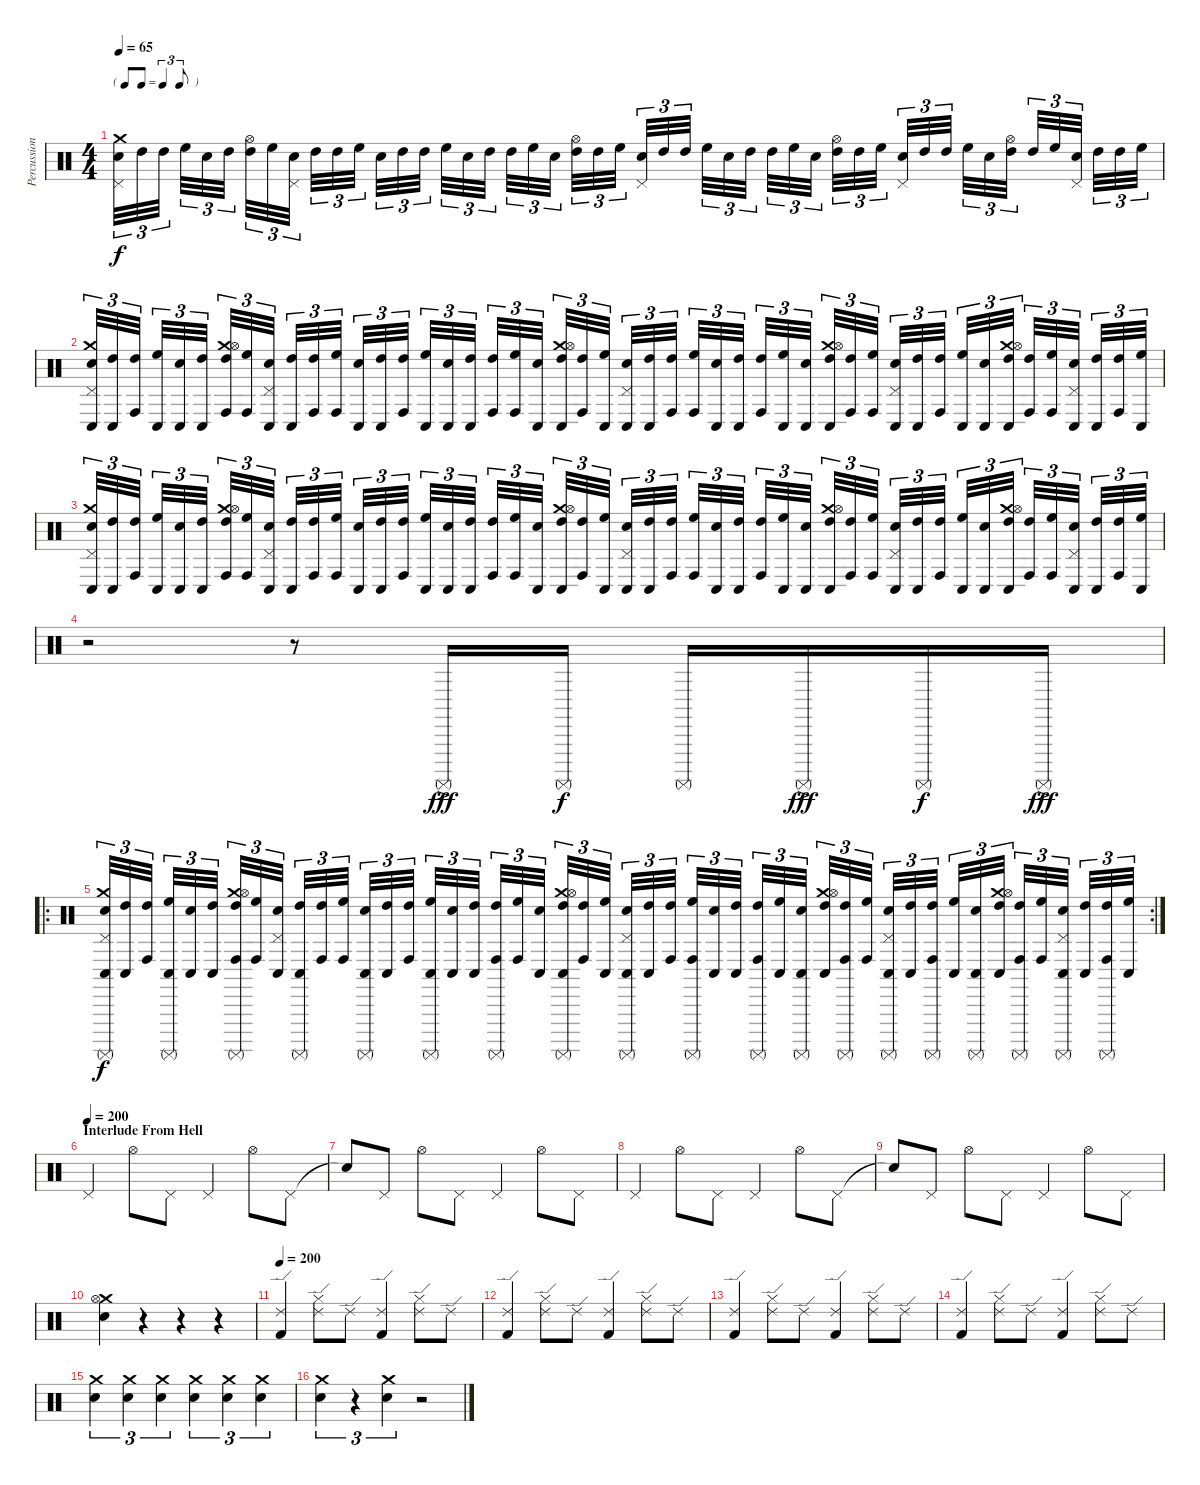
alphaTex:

\track ("Percussion" "Percussion") {instrument percussion}
\staff {score}
\articulation defaults
\ts (4 4)
\tf triplet8th
\tempo 65
\clef neutral
\ks c
("Crash medium (hit)" "Pedal Hi-Hat (hit)" "Electric Snare (hit)").32{tu (3 2) dy f} "High Tom (hit)".32{tu (3 2)} "High Tom (hit)".32{tu (3 2)} "High Floor Tom (hit)".32{tu (3 2)} "Electric Snare (hit)".32{tu (3 2)} "High Tom (hit)".32{tu (3 2)} ("Hi-Hat (open)" "High Tom (hit)").32{tu (3 2)} "High Floor Tom (hit)".32{tu (3 2)} ("Pedal Hi-Hat (hit)" "Electric Snare (hit)").32{tu (3 2)} "High Tom (hit)".32{tu (3 2)} "High Tom (hit)".32{tu (3 2)} "High Floor Tom (hit)".32{tu (3 2)} "Electric Snare (hit)".32{tu (3 2)} "High Tom (hit)".32{tu (3 2)} "High Tom (hit)".32{tu (3 2)} "High Floor Tom (hit)".32{tu (3 2)} "Electric Snare (hit)".32{tu (3 2)} "High Tom (hit)".32{tu (3 2)} "High Tom (hit)".32{tu (3 2)} "High Floor Tom (hit)".32{tu (3 2)} "Electric Snare (hit)".32{tu (3 2)} ("Hi-Hat (open)" "High Tom (hit)").32{tu (3 2)} "High Tom (hit)".32{tu (3 2)} "High Floor Tom (hit)".32{tu (3 2)} ("Pedal Hi-Hat (hit)" "Electric Snare (hit)").32{tu (3 2)} "High Tom (hit)".32{tu (3 2)} "High Tom (hit)".32{tu (3 2)} "High Floor Tom (hit)".32{tu (3 2)} "Electric Snare (hit)".32{tu (3 2)} "High Tom (hit)".32{tu (3 2)} "High Tom (hit)".32{tu (3 2)} "High Floor Tom (hit)".32{tu (3 2)} "Electric Snare (hit)".32{tu (3 2)} ("Hi-Hat (open)" "High Tom (hit)").32{tu (3 2)} "High Tom (hit)".32{tu (3 2)} "High Floor Tom (hit)".32{tu (3 2)} ("Pedal Hi-Hat (hit)" "Electric Snare (hit)").32{tu (3 2)} "High Tom (hit)".32{tu (3 2)} "High Tom (hit)".32{tu (3 2)} "High Floor Tom (hit)".32{tu (3 2)} "Electric Snare (hit)".32{tu (3 2)} ("Hi-Hat (open)" "High Tom (hit)").32{tu (3 2)} "High Tom (hit)".32{tu (3 2)} "High Floor Tom (hit)".32{tu (3 2)} ("Pedal Hi-Hat (hit)" "Electric Snare (hit)").32{tu (3 2)} "High Tom (hit)".32{tu (3 2)} "High Tom (hit)".32{tu (3 2)} "High Floor Tom (hit)".32{tu (3 2)} |
("Crash medium (hit)" "Pedal Hi-Hat (hit)" "Electric Snare (hit)" "Conga low (hit)").32{tu (3 2)} ("High Tom (hit)" "Conga low (hit)").32{tu (3 2)} ("High Tom (hit)" "Conga high (hit)").32{tu (3 2)} ("High Floor Tom (hit)" "Conga low (hit)").32{tu (3 2)} ("Electric Snare (hit)" "Conga low (hit)").32{tu (3 2)} ("High Tom (hit)" "Conga low (hit)").32{tu (3 2)} ("Crash medium (hit)" "Hi-Hat (open)" "High Tom (hit)" "Conga high (hit)").32{tu (3 2)} ("High Floor Tom (hit)" "Conga high (hit)").32{tu (3 2)} ("Pedal Hi-Hat (hit)" "Electric Snare (hit)" "Conga low (hit)").32{tu (3 2)} ("High Tom (hit)" "Conga low (hit)").32{tu (3 2)} ("High Tom (hit)" "Conga high (hit)").32{tu (3 2)} ("High Floor Tom (hit)" "Conga high (hit)").32{tu (3 2)} ("Electric Snare (hit)" "Conga low (hit)").32{tu (3 2)} ("High Tom (hit)" "Conga low (hit)").32{tu (3 2)} ("High Tom (hit)" "Conga high (hit)").32{tu (3 2)} ("High Floor Tom (hit)" "Conga low (hit)").32{tu (3 2)} ("Electric Snare (hit)" "Conga low (hit)").32{tu (3 2)} ("High Tom (hit)" "Conga low (hit)").32{tu (3 2)} ("High Tom (hit)" "Conga high (hit)").32{tu (3 2)} ("High Floor Tom (hit)" "Conga high (hit)").32{tu (3 2)} ("Electric Snare (hit)" "Conga low (hit)").32{tu (3 2)} ("Crash medium (hit)" "Hi-Hat (open)" "High Tom (hit)" "Conga low (hit)").32{tu (3 2)} ("High Tom (hit)" "Conga high (hit)").32{tu (3 2)} ("High Floor Tom (hit)" "Conga low (hit)").32{tu (3 2)} ("Pedal Hi-Hat (hit)" "Electric Snare (hit)" "Conga low (hit)").32{tu (3 2)} ("High Tom (hit)" "Conga low (hit)").32{tu (3 2)} ("High Tom (hit)" "Conga high (hit)").32{tu (3 2)} ("High Floor Tom (hit)" "Conga high (hit)").32{tu (3 2)} ("Electric Snare (hit)" "Conga low (hit)").32{tu (3 2)} ("High Tom (hit)" "Conga low (hit)").32{tu (3 2)} ("High Tom (hit)" "Conga high (hit)").32{tu (3 2)} ("High Floor Tom (hit)" "Conga low (hit)").32{tu (3 2)} ("Electric Snare (hit)" "Conga low (hit)").32{tu (3 2)} ("Crash medium (hit)" "Hi-Hat (open)" "High Tom (hit)" "Conga low (hit)").32{tu (3 2)} ("High Tom (hit)" "Conga high (hit)").32{tu (3 2)} ("High Floor Tom (hit)" "Conga high (hit)").32{tu (3 2)} ("Pedal Hi-Hat (hit)" "Electric Snare (hit)" "Conga low (hit)").32{tu (3 2)} ("High Tom (hit)" "Conga low (hit)").32{tu (3 2)} ("High Tom (hit)" "Conga high (hit)").32{tu (3 2)} ("High Floor Tom (hit)" "Conga low (hit)").32{tu (3 2)} ("Electric Snare (hit)" "Conga low (hit)").32{tu (3 2)} ("Crash medium (hit)" "Hi-Hat (open)" "High Tom (hit)" "Conga low (hit)").32{tu (3 2)} ("High Tom (hit)" "Conga high (hit)").32{tu (3 2)} ("High Floor Tom (hit)" "Conga high (hit)").32{tu (3 2)} ("Pedal Hi-Hat (hit)" "Electric Snare (hit)" "Conga low (hit)").32{tu (3 2)} ("High Tom (hit)" "Conga low (hit)").32{tu (3 2)} ("High Tom (hit)" "Conga high (hit)").32{tu (3 2)} ("High Floor Tom (hit)" "Conga low (hit)").32{tu (3 2)} |
("Crash medium (hit)" "Pedal Hi-Hat (hit)" "Electric Snare (hit)" "Conga low (hit)").32{tu (3 2)} ("High Tom (hit)" "Conga low (hit)").32{tu (3 2)} ("High Tom (hit)" "Conga high (hit)").32{tu (3 2)} ("High Floor Tom (hit)" "Conga low (hit)").32{tu (3 2)} ("Electric Snare (hit)" "Conga low (hit)").32{tu (3 2)} ("High Tom (hit)" "Conga low (hit)").32{tu (3 2)} ("Crash medium (hit)" "Hi-Hat (open)" "High Tom (hit)" "Conga high (hit)").32{tu (3 2)} ("High Floor Tom (hit)" "Conga high (hit)").32{tu (3 2)} ("Pedal Hi-Hat (hit)" "Electric Snare (hit)" "Conga low (hit)").32{tu (3 2)} ("High Tom (hit)" "Conga low (hit)").32{tu (3 2)} ("High Tom (hit)" "Conga high (hit)").32{tu (3 2)} ("High Floor Tom (hit)" "Conga high (hit)").32{tu (3 2)} ("Electric Snare (hit)" "Conga low (hit)").32{tu (3 2)} ("High Tom (hit)" "Conga low (hit)").32{tu (3 2)} ("High Tom (hit)" "Conga high (hit)").32{tu (3 2)} ("High Floor Tom (hit)" "Conga low (hit)").32{tu (3 2)} ("Electric Snare (hit)" "Conga low (hit)").32{tu (3 2)} ("High Tom (hit)" "Conga low (hit)").32{tu (3 2)} ("High Tom (hit)" "Conga high (hit)").32{tu (3 2)} ("High Floor Tom (hit)" "Conga high (hit)").32{tu (3 2)} ("Electric Snare (hit)" "Conga low (hit)").32{tu (3 2)} ("Crash medium (hit)" "Hi-Hat (open)" "High Tom (hit)" "Conga low (hit)").32{tu (3 2)} ("High Tom (hit)" "Conga high (hit)").32{tu (3 2)} ("High Floor Tom (hit)" "Conga low (hit)").32{tu (3 2)} ("Pedal Hi-Hat (hit)" "Electric Snare (hit)" "Conga low (hit)").32{tu (3 2)} ("High Tom (hit)" "Conga low (hit)").32{tu (3 2)} ("High Tom (hit)" "Conga high (hit)").32{tu (3 2)} ("High Floor Tom (hit)" "Conga high (hit)").32{tu (3 2)} ("Electric Snare (hit)" "Conga low (hit)").32{tu (3 2)} ("High Tom (hit)" "Conga low (hit)").32{tu (3 2)} ("High Tom (hit)" "Conga high (hit)").32{tu (3 2)} ("High Floor Tom (hit)" "Conga low (hit)").32{tu (3 2)} ("Electric Snare (hit)" "Conga low (hit)").32{tu (3 2)} ("Crash medium (hit)" "Hi-Hat (open)" "High Tom (hit)" "Conga low (hit)").32{tu (3 2)} ("High Tom (hit)" "Conga high (hit)").32{tu (3 2)} ("High Floor Tom (hit)" "Conga high (hit)").32{tu (3 2)} ("Pedal Hi-Hat (hit)" "Electric Snare (hit)" "Conga low (hit)").32{tu (3 2)} ("High Tom (hit)" "Conga low (hit)").32{tu (3 2)} ("High Tom (hit)" "Conga high (hit)").32{tu (3 2)} ("High Floor Tom (hit)" "Conga low (hit)").32{tu (3 2)} ("Electric Snare (hit)" "Conga low (hit)").32{tu (3 2)} ("Crash medium (hit)" "Hi-Hat (open)" "High Tom (hit)" "Conga low (hit)").32{tu (3 2)} ("High Tom (hit)" "Conga high (hit)").32{tu (3 2)} ("High Floor Tom (hit)" "Conga high (hit)").32{tu (3 2)} ("Pedal Hi-Hat (hit)" "Electric Snare (hit)" "Conga low (hit)").32{tu (3 2)} ("High Tom (hit)" "Conga low (hit)").32{tu (3 2)} ("High Tom (hit)" "Conga high (hit)").32{tu (3 2)} ("High Floor Tom (hit)" "Conga low (hit)").32{tu (3 2)} |
r.2 r.8 "Surdo (mute)"{ac}.16{dy fff} "Surdo (mute)".16{dy f} "Surdo (mute)".16 "Surdo (mute)"{ac}.16{dy fff} "Surdo (mute)".16{dy f} "Surdo (mute)"{ac}.16{dy fff} |
\ro
\rc 2
("Crash medium (hit)" "Pedal Hi-Hat (hit)" "Electric Snare (hit)" "Conga low (hit)" "Surdo (mute)").32{tu (3 2) dy f} ("High Tom (hit)" "Conga low (hit)").32{tu (3 2)} ("High Tom (hit)" "Conga high (hit)").32{tu (3 2)} ("High Floor Tom (hit)" "Conga low (hit)" "Surdo (mute)").32{tu (3 2)} ("Electric Snare (hit)" "Conga low (hit)").32{tu (3 2)} ("High Tom (hit)" "Conga low (hit)").32{tu (3 2)} ("Crash medium (hit)" "Hi-Hat (open)" "High Tom (hit)" "Conga high (hit)" "Surdo (mute)").32{tu (3 2)} ("High Floor Tom (hit)" "Conga high (hit)").32{tu (3 2)} ("Pedal Hi-Hat (hit)" "Electric Snare (hit)" "Conga low (hit)").32{tu (3 2)} ("High Tom (hit)" "Conga low (hit)" "Surdo (mute)").32{tu (3 2)} ("High Tom (hit)" "Conga high (hit)").32{tu (3 2)} ("High Floor Tom (hit)" "Conga high (hit)").32{tu (3 2)} ("Electric Snare (hit)" "Conga low (hit)" "Surdo (mute)").32{tu (3 2)} ("High Tom (hit)" "Conga low (hit)").32{tu (3 2)} ("High Tom (hit)" "Conga high (hit)").32{tu (3 2)} ("High Floor Tom (hit)" "Conga low (hit)" "Surdo (mute)").32{tu (3 2)} ("Electric Snare (hit)" "Conga low (hit)").32{tu (3 2)} ("High Tom (hit)" "Conga low (hit)").32{tu (3 2)} ("High Tom (hit)" "Conga high (hit)" "Surdo (mute)").32{tu (3 2)} ("High Floor Tom (hit)" "Conga high (hit)").32{tu (3 2)} ("Electric Snare (hit)" "Conga low (hit)").32{tu (3 2)} ("Crash medium (hit)" "Hi-Hat (open)" "High Tom (hit)" "Conga low (hit)" "Surdo (mute)").32{tu (3 2)} ("High Tom (hit)" "Conga high (hit)").32{tu (3 2)} ("High Floor Tom (hit)" "Conga low (hit)").32{tu (3 2)} ("Pedal Hi-Hat (hit)" "Electric Snare (hit)" "Conga low (hit)" "Surdo (mute)").32{tu (3 2)} ("High Tom (hit)" "Conga low (hit)").32{tu (3 2)} ("High Tom (hit)" "Conga high (hit)").32{tu (3 2)} ("High Floor Tom (hit)" "Conga high (hit)" "Surdo (mute)").32{tu (3 2)} ("Electric Snare (hit)" "Conga low (hit)").32{tu (3 2)} ("High Tom (hit)" "Conga low (hit)").32{tu (3 2)} ("High Tom (hit)" "Conga high (hit)" "Surdo (mute)").32{tu (3 2)} ("High Floor Tom (hit)" "Conga low (hit)").32{tu (3 2)} ("Electric Snare (hit)" "Conga low (hit)" "Surdo (mute)").32{tu (3 2)} ("Crash medium (hit)" "Hi-Hat (open)" "High Tom (hit)" "Conga low (hit)").32{tu (3 2)} ("High Tom (hit)" "Conga high (hit)" "Surdo (mute)").32{tu (3 2)} ("High Floor Tom (hit)" "Conga high (hit)").32{tu (3 2)} ("Pedal Hi-Hat (hit)" "Electric Snare (hit)" "Conga low (hit)" "Surdo (mute)").32{tu (3 2)} ("High Tom (hit)" "Conga low (hit)").32{tu (3 2)} ("High Tom (hit)" "Conga high (hit)" "Surdo (mute)").32{tu (3 2)} ("High Floor Tom (hit)" "Conga low (hit)").32{tu (3 2)} ("Electric Snare (hit)" "Conga low (hit)" "Surdo (mute)").32{tu (3 2)} ("Crash medium (hit)" "Hi-Hat (open)" "High Tom (hit)" "Conga low (hit)").32{tu (3 2)} ("High Tom (hit)" "Conga high (hit)" "Surdo (mute)").32{tu (3 2)} ("High Floor Tom (hit)" "Conga high (hit)").32{tu (3 2)} ("Pedal Hi-Hat (hit)" "Electric Snare (hit)" "Conga low (hit)" "Surdo (mute)").32{tu (3 2)} ("High Tom (hit)" "Conga low (hit)").32{tu (3 2)} ("High Tom (hit)" "Conga high (hit)" "Surdo (mute)").32{tu (3 2)} ("High Floor Tom (hit)" "Conga low (hit)").32{tu (3 2)} |
\section ("" "Interlude From Hell")
\tempo (200)
"Pedal Hi-Hat (hit)".4 "Hi-Hat (open)".8 "Pedal Hi-Hat (hit)".8 "Pedal Hi-Hat (hit)".4 "Hi-Hat (open)".8 "Pedal Hi-Hat (hit)".8 |
"Snare (hit)"{t}.8 "Pedal Hi-Hat (hit)".8 "Hi-Hat (open)".8 "Pedal Hi-Hat (hit)".8 "Pedal Hi-Hat (hit)".4 "Hi-Hat (open)".8 "Pedal Hi-Hat (hit)".8 |
"Pedal Hi-Hat (hit)".4 "Hi-Hat (open)".8 "Pedal Hi-Hat (hit)".8 "Pedal Hi-Hat (hit)".4 "Hi-Hat (open)".8 "Pedal Hi-Hat (hit)".8 |
"Snare (hit)"{t}.8 "Pedal Hi-Hat (hit)".8 "Hi-Hat (open)".8 "Pedal Hi-Hat (hit)".8 "Pedal Hi-Hat (hit)".4 "Hi-Hat (open)".8 "Pedal Hi-Hat (hit)".8 |
("Crash medium (hit)" "Hi-Hat (open)" "Electric Snare (hit)").4 r.4{volume 0} r.4 r.4 |
\tempo 200
("Ride (edge) 2" "Kick (hit) 2").4{volume 11} ("Ride (edge) 2" "Hi-Hat (closed)").8 "Ride (edge) 2".8 ("Ride (edge) 2" "Kick (hit) 2").4 ("Ride (edge) 2" "Hi-Hat (closed)").8 "Ride (edge) 2".8 |
("Ride (edge) 2" "Kick (hit) 2").4{volume 11} ("Ride (edge) 2" "Hi-Hat (closed)").8 "Ride (edge) 2".8 ("Ride (edge) 2" "Kick (hit) 2").4 ("Ride (edge) 2" "Hi-Hat (closed)").8 "Ride (edge) 2".8 |
("Ride (edge) 2" "Kick (hit) 2").4{volume 11} ("Ride (edge) 2" "Hi-Hat (closed)").8 "Ride (edge) 2".8 ("Ride (edge) 2" "Kick (hit) 2").4 ("Ride (edge) 2" "Hi-Hat (closed)").8 "Ride (edge) 2".8 |
("Ride (edge) 2" "Kick (hit) 2").4{volume 11} ("Ride (edge) 2" "Hi-Hat (closed)").8 "Ride (edge) 2".8 ("Ride (edge) 2" "Kick (hit) 2").4 ("Ride (edge) 2" "Hi-Hat (closed)").8 "Ride (edge) 2".8 |
("Crash medium (hit)" "Electric Snare (hit)").4{tu (3 2)} ("Crash medium (hit)" "Electric Snare (hit)").4{tu (3 2)} ("Crash medium (hit)" "Electric Snare (hit)").4{tu (3 2)} ("Crash medium (hit)" "Electric Snare (hit)").4{tu (3 2)} ("Crash medium (hit)" "Electric Snare (hit)").4{tu (3 2)} ("Crash medium (hit)" "Electric Snare (hit)").4{tu (3 2)} |
("Crash medium (hit)" "Electric Snare (hit)").4{tu (3 2)} r.4{tu (3 2)} ("Crash medium (hit)" "Electric Snare (hit)").4{tu (3 2)} r.2
